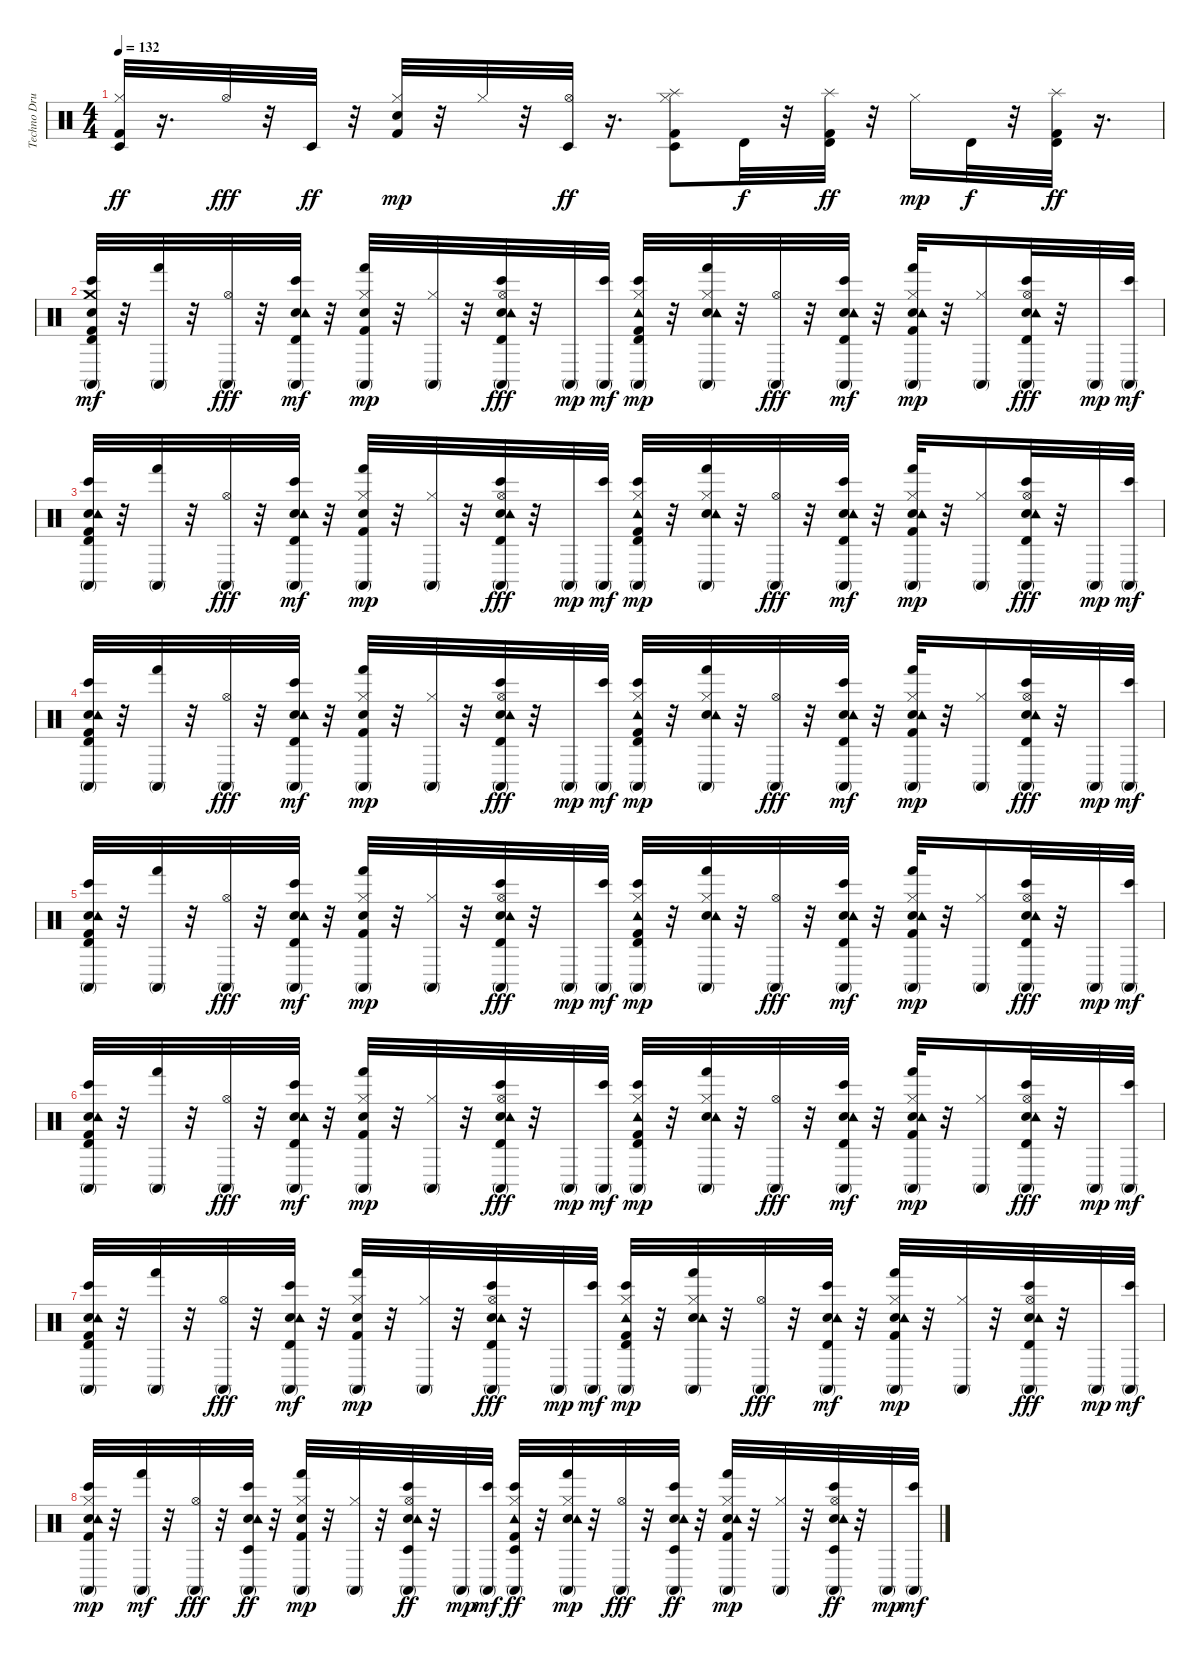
\track ("Techno Drums" "Techno Dru") {instrument percussion}
\staff {score}
\articulation defaults
\ts (4 4)
\tempo 132
\clef neutral
\ks c
("Kick (hit) 2" "Hi-Hat (closed)" "Timbale low (hit)").32{dy ff} r.16{d} "Hi-Hat (open)".32{dy fff} r.32 "Timbale low (hit)".32{dy ff} r.32 ("Kick (hit) 2" "Hand Clap (hit)" "Hi-Hat (closed)").32{dy mp} r.32 "Hi-Hat (closed)".32 r.32 ("Hi-Hat (open)" "Timbale low (hit)").32{dy ff} r.16{d} ("Hi-Hat (closed)" "Timbale low (hit)" "Kick (hit) 2" "Splash (hit)").8 "Timbale high (hit)".32{dy f} r.32 ("Timbale high (hit)" "Kick (hit) 2" "Splash (hit)").32{dy ff} r.32 "Hi-Hat (closed)".16{dy mp} "Timbale high (hit)".32{dy f} r.32 ("Timbale high (hit)" "Kick (hit) 2" "Splash (hit)").32{dy ff} r.16{d} |
("Kick (hit) 2" "Hand Clap (hit)" "Crash medium (hit)" "Conga high (mute)" "Bongo High (hit)" "Timbale high (hit)").32{dy mf} r.32 ("Conga high (mute)" "Hand (hit)").32 r.32 ("Conga high (mute)" "Hi-Hat (open)").32{dy fff} r.32 ("Hand Clap (hit)" "Tambourine (hit)" "Conga high (mute)" "Bongo High (hit)" "Timbale high (hit)").32{dy mf} r.32 ("Kick (hit) 2" "Hand Clap (hit)" "Conga high (mute)" "Hand (hit)" "Hi-Hat (closed)").32{dy mp} r.32 ("Conga high (mute)" "Hi-Hat (closed)").32 r.32 ("Hand Clap (hit)" "Tambourine (hit)" "Conga high (mute)" "Bongo High (hit)" "Timbale high (hit)" "Hi-Hat (open)").32{dy fff} r.32 "Conga high (mute)".32{dy mp} ("Conga high (mute)" "Bongo High (hit)").32{dy mf} ("Kick (hit) 2" "Tambourine (hit)" "Conga high (mute)" "Bongo High (hit)" "Timbale high (hit)" "Hi-Hat (closed)").32{dy mp} r.32 ("Hand Clap (hit)" "Tambourine (hit)" "Conga high (mute)" "Hand (hit)" "Hi-Hat (closed)").32 r.32 ("Conga high (mute)" "Hi-Hat (open)").32{dy fff} r.32 ("Hand Clap (hit)" "Tambourine (hit)" "Conga high (mute)" "Bongo High (hit)" "Timbale high (hit)").32{dy mf} r.32 ("Kick (hit) 2" "Hand Clap (hit)" "Tambourine (hit)" "Conga high (mute)" "Hand (hit)" "Hi-Hat (closed)").32{dy mp} r.32 ("Conga high (mute)" "Hi-Hat (closed)").16 ("Hand Clap (hit)" "Tambourine (hit)" "Conga high (mute)" "Bongo High (hit)" "Timbale high (hit)" "Hi-Hat (open)").32{dy fff} r.32 "Conga high (mute)".32{dy mp} ("Conga high (mute)" "Bongo High (hit)").32{dy mf} |
("Kick (hit) 2" "Hand Clap (hit)" "Tambourine (hit)" "Conga high (mute)" "Bongo High (hit)" "Timbale high (hit)").32 r.32 ("Conga high (mute)" "Hand (hit)").32 r.32 ("Conga high (mute)" "Hi-Hat (open)").32{dy fff} r.32 ("Hand Clap (hit)" "Tambourine (hit)" "Conga high (mute)" "Bongo High (hit)" "Timbale high (hit)").32{dy mf} r.32 ("Kick (hit) 2" "Hand Clap (hit)" "Conga high (mute)" "Hand (hit)" "Hi-Hat (closed)").32{dy mp} r.32 ("Conga high (mute)" "Hi-Hat (closed)").32 r.32 ("Hand Clap (hit)" "Tambourine (hit)" "Conga high (mute)" "Bongo High (hit)" "Timbale high (hit)" "Hi-Hat (open)").32{dy fff} r.32 "Conga high (mute)".32{dy mp} ("Conga high (mute)" "Bongo High (hit)").32{dy mf} ("Kick (hit) 2" "Tambourine (hit)" "Conga high (mute)" "Bongo High (hit)" "Timbale high (hit)" "Hi-Hat (closed)").32{dy mp} r.32 ("Hand Clap (hit)" "Tambourine (hit)" "Conga high (mute)" "Hand (hit)" "Hi-Hat (closed)").32 r.32 ("Conga high (mute)" "Hi-Hat (open)").32{dy fff} r.32 ("Hand Clap (hit)" "Tambourine (hit)" "Conga high (mute)" "Bongo High (hit)" "Timbale high (hit)").32{dy mf} r.32 ("Kick (hit) 2" "Hand Clap (hit)" "Tambourine (hit)" "Conga high (mute)" "Hand (hit)" "Hi-Hat (closed)").32{dy mp} r.32 ("Conga high (mute)" "Hi-Hat (closed)").16 ("Hand Clap (hit)" "Tambourine (hit)" "Conga high (mute)" "Bongo High (hit)" "Timbale high (hit)" "Hi-Hat (open)").32{dy fff} r.32 "Conga high (mute)".32{dy mp} ("Conga high (mute)" "Bongo High (hit)").32{dy mf} |
("Kick (hit) 2" "Hand Clap (hit)" "Tambourine (hit)" "Conga high (mute)" "Bongo High (hit)" "Timbale high (hit)").32 r.32 ("Conga high (mute)" "Hand (hit)").32 r.32 ("Conga high (mute)" "Hi-Hat (open)").32{dy fff} r.32 ("Hand Clap (hit)" "Tambourine (hit)" "Conga high (mute)" "Bongo High (hit)" "Timbale high (hit)").32{dy mf} r.32 ("Kick (hit) 2" "Hand Clap (hit)" "Conga high (mute)" "Hand (hit)" "Hi-Hat (closed)").32{dy mp} r.32 ("Conga high (mute)" "Hi-Hat (closed)").32 r.32 ("Hand Clap (hit)" "Tambourine (hit)" "Conga high (mute)" "Bongo High (hit)" "Timbale high (hit)" "Hi-Hat (open)").32{dy fff} r.32 "Conga high (mute)".32{dy mp} ("Conga high (mute)" "Bongo High (hit)").32{dy mf} ("Kick (hit) 2" "Tambourine (hit)" "Conga high (mute)" "Bongo High (hit)" "Timbale high (hit)" "Hi-Hat (closed)").32{dy mp} r.32 ("Hand Clap (hit)" "Tambourine (hit)" "Conga high (mute)" "Hand (hit)" "Hi-Hat (closed)").32 r.32 ("Conga high (mute)" "Hi-Hat (open)").32{dy fff} r.32 ("Hand Clap (hit)" "Tambourine (hit)" "Conga high (mute)" "Bongo High (hit)" "Timbale high (hit)").32{dy mf} r.32 ("Kick (hit) 2" "Hand Clap (hit)" "Tambourine (hit)" "Conga high (mute)" "Hand (hit)" "Hi-Hat (closed)").32{dy mp} r.32 ("Conga high (mute)" "Hi-Hat (closed)").16 ("Hand Clap (hit)" "Tambourine (hit)" "Conga high (mute)" "Bongo High (hit)" "Timbale high (hit)" "Hi-Hat (open)").32{dy fff} r.32 "Conga high (mute)".32{dy mp} ("Conga high (mute)" "Bongo High (hit)").32{dy mf} |
("Kick (hit) 2" "Hand Clap (hit)" "Tambourine (hit)" "Conga high (mute)" "Bongo High (hit)" "Timbale high (hit)").32 r.32 ("Conga high (mute)" "Hand (hit)").32 r.32 ("Conga high (mute)" "Hi-Hat (open)").32{dy fff} r.32 ("Hand Clap (hit)" "Tambourine (hit)" "Conga high (mute)" "Bongo High (hit)" "Timbale high (hit)").32{dy mf} r.32 ("Kick (hit) 2" "Hand Clap (hit)" "Conga high (mute)" "Hand (hit)" "Hi-Hat (closed)").32{dy mp} r.32 ("Conga high (mute)" "Hi-Hat (closed)").32 r.32 ("Hand Clap (hit)" "Tambourine (hit)" "Conga high (mute)" "Bongo High (hit)" "Timbale high (hit)" "Hi-Hat (open)").32{dy fff} r.32 "Conga high (mute)".32{dy mp} ("Conga high (mute)" "Bongo High (hit)").32{dy mf} ("Kick (hit) 2" "Tambourine (hit)" "Conga high (mute)" "Bongo High (hit)" "Timbale high (hit)" "Hi-Hat (closed)").32{dy mp} r.32 ("Hand Clap (hit)" "Tambourine (hit)" "Conga high (mute)" "Hand (hit)" "Hi-Hat (closed)").32 r.32 ("Conga high (mute)" "Hi-Hat (open)").32{dy fff} r.32 ("Hand Clap (hit)" "Tambourine (hit)" "Conga high (mute)" "Bongo High (hit)" "Timbale high (hit)").32{dy mf} r.32 ("Kick (hit) 2" "Hand Clap (hit)" "Tambourine (hit)" "Conga high (mute)" "Hand (hit)" "Hi-Hat (closed)").32{dy mp} r.32 ("Conga high (mute)" "Hi-Hat (closed)").16 ("Hand Clap (hit)" "Tambourine (hit)" "Conga high (mute)" "Bongo High (hit)" "Timbale high (hit)" "Hi-Hat (open)").32{dy fff} r.32 "Conga high (mute)".32{dy mp} ("Conga high (mute)" "Bongo High (hit)").32{dy mf} |
("Kick (hit) 2" "Hand Clap (hit)" "Tambourine (hit)" "Conga high (mute)" "Bongo High (hit)" "Timbale high (hit)").32 r.32 ("Conga high (mute)" "Hand (hit)").32 r.32 ("Conga high (mute)" "Hi-Hat (open)").32{dy fff} r.32 ("Hand Clap (hit)" "Tambourine (hit)" "Conga high (mute)" "Bongo High (hit)" "Timbale high (hit)").32{dy mf} r.32 ("Kick (hit) 2" "Hand Clap (hit)" "Conga high (mute)" "Hand (hit)" "Hi-Hat (closed)").32{dy mp} r.32 ("Conga high (mute)" "Hi-Hat (closed)").32 r.32 ("Hand Clap (hit)" "Tambourine (hit)" "Conga high (mute)" "Bongo High (hit)" "Timbale high (hit)" "Hi-Hat (open)").32{dy fff} r.32 "Conga high (mute)".32{dy mp} ("Conga high (mute)" "Bongo High (hit)").32{dy mf} ("Kick (hit) 2" "Tambourine (hit)" "Conga high (mute)" "Bongo High (hit)" "Timbale high (hit)" "Hi-Hat (closed)").32{dy mp} r.32 ("Hand Clap (hit)" "Tambourine (hit)" "Conga high (mute)" "Hand (hit)" "Hi-Hat (closed)").32 r.32 ("Conga high (mute)" "Hi-Hat (open)").32{dy fff} r.32 ("Hand Clap (hit)" "Tambourine (hit)" "Conga high (mute)" "Bongo High (hit)" "Timbale high (hit)").32{dy mf} r.32 ("Kick (hit) 2" "Hand Clap (hit)" "Tambourine (hit)" "Conga high (mute)" "Hand (hit)" "Hi-Hat (closed)").32{dy mp} r.32 ("Conga high (mute)" "Hi-Hat (closed)").16 ("Hand Clap (hit)" "Tambourine (hit)" "Conga high (mute)" "Bongo High (hit)" "Timbale high (hit)" "Hi-Hat (open)").32{dy fff} r.32 "Conga high (mute)".32{dy mp} ("Conga high (mute)" "Bongo High (hit)").32{dy mf} |
("Kick (hit) 2" "Hand Clap (hit)" "Tambourine (hit)" "Conga high (mute)" "Bongo High (hit)" "Timbale high (hit)").32 r.32 ("Conga high (mute)" "Hand (hit)").32 r.32 ("Conga high (mute)" "Hi-Hat (open)").32{dy fff} r.32 ("Hand Clap (hit)" "Tambourine (hit)" "Conga high (mute)" "Bongo High (hit)" "Timbale high (hit)").32{dy mf} r.32 ("Kick (hit) 2" "Hand Clap (hit)" "Conga high (mute)" "Hand (hit)" "Hi-Hat (closed)").32{dy mp} r.32 ("Conga high (mute)" "Hi-Hat (closed)").32 r.32 ("Hand Clap (hit)" "Tambourine (hit)" "Conga high (mute)" "Bongo High (hit)" "Timbale high (hit)" "Hi-Hat (open)").32{dy fff} r.32 "Conga high (mute)".32{dy mp} ("Conga high (mute)" "Bongo High (hit)").32{dy mf} ("Kick (hit) 2" "Tambourine (hit)" "Conga high (mute)" "Bongo High (hit)" "Timbale high (hit)" "Hi-Hat (closed)").32{dy mp} r.32 ("Hand Clap (hit)" "Tambourine (hit)" "Conga high (mute)" "Hand (hit)" "Hi-Hat (closed)").32 r.32 ("Conga high (mute)" "Hi-Hat (open)").32{dy fff} r.32 ("Hand Clap (hit)" "Tambourine (hit)" "Conga high (mute)" "Bongo High (hit)" "Timbale high (hit)").32{dy mf} r.32 ("Kick (hit) 2" "Hand Clap (hit)" "Tambourine (hit)" "Conga high (mute)" "Hand (hit)" "Hi-Hat (closed)").32{dy mp} r.32 ("Conga high (mute)" "Hi-Hat (closed)").32 r.32 ("Hand Clap (hit)" "Tambourine (hit)" "Conga high (mute)" "Bongo High (hit)" "Timbale high (hit)" "Hi-Hat (open)").32{dy fff} r.32 "Conga high (mute)".32{dy mp} ("Conga high (mute)" "Bongo High (hit)").32{dy mf} |
("Kick (hit) 2" "Hand Clap (hit)" "Tambourine (hit)" "Conga high (mute)" "Bongo High (hit)" "Hi-Hat (closed)").32{dy mp} r.32 ("Conga high (mute)" "Hand (hit)").32{dy mf} r.32 ("Conga high (mute)" "Hi-Hat (open)").32{dy fff} r.32 ("Hand Clap (hit)" "Tambourine (hit)" "Conga high (mute)" "Bongo High (hit)" "Timbale low (hit)").32{dy ff} r.32 ("Kick (hit) 2" "Hand Clap (hit)" "Conga high (mute)" "Hand (hit)" "Hi-Hat (closed)").32{dy mp} r.32 ("Conga high (mute)" "Hi-Hat (closed)").32 r.32 ("Hand Clap (hit)" "Tambourine (hit)" "Conga high (mute)" "Bongo High (hit)" "Hi-Hat (open)" "Timbale low (hit)").32{dy ff} r.32 "Conga high (mute)".32{dy mp} ("Conga high (mute)" "Bongo High (hit)").32{dy mf} ("Kick (hit) 2" "Tambourine (hit)" "Conga high (mute)" "Bongo High (hit)" "Hi-Hat (closed)" "Timbale low (hit)").32{dy ff} r.32 ("Hand Clap (hit)" "Tambourine (hit)" "Conga high (mute)" "Hand (hit)" "Hi-Hat (closed)").32{dy mp} r.32 ("Conga high (mute)" "Hi-Hat (open)").32{dy fff} r.32 ("Hand Clap (hit)" "Tambourine (hit)" "Conga high (mute)" "Bongo High (hit)" "Timbale low (hit)").32{dy ff} r.32 ("Kick (hit) 2" "Hand Clap (hit)" "Tambourine (hit)" "Conga high (mute)" "Hand (hit)" "Hi-Hat (closed)").32{dy mp} r.32 ("Conga high (mute)" "Hi-Hat (closed)").32 r.32 ("Hand Clap (hit)" "Tambourine (hit)" "Conga high (mute)" "Bongo High (hit)" "Hi-Hat (open)" "Timbale low (hit)").32{dy ff} r.32 "Conga high (mute)".32{dy mp} ("Conga high (mute)" "Bongo High (hit)").32{dy mf}
